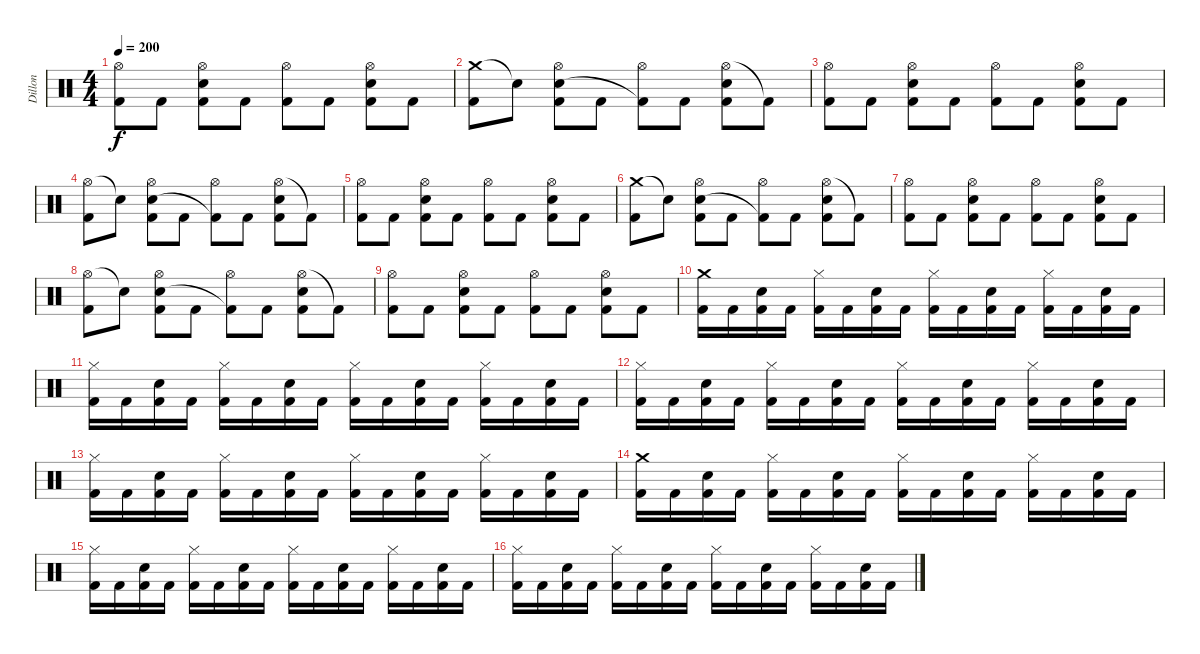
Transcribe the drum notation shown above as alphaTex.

\track ("Dillon" "Dillon") {instrument percussion}
\staff {score}
\articulation defaults
\ts (4 4)
\tempo 200
\clef neutral
\ks c
("Hi-Hat (open)" "Kick (hit) 2").8{dy f} "Kick (hit) 2".8 ("Hi-Hat (open)" "Electric Snare (hit)" "Kick (hit) 2").8 "Kick (hit) 2".8 ("Hi-Hat (open)" "Kick (hit) 2").8 "Kick (hit) 2".8 ("Hi-Hat (open)" "Electric Snare (hit)" "Kick (hit) 2").8 "Kick (hit) 2".8 |
("Crash medium (hit)" "Kick (hit) 2").8 "Snare (hit)"{t}.8 ("Hi-Hat (open)" "Electric Snare (hit)" "Kick (hit) 2").8 "Kick (hit) 2".8 ("Hi-Hat (open)" "Kick (hit) 2"{t}).8 "Kick (hit) 2".8 ("Hi-Hat (open)" "Electric Snare (hit)" "Kick (hit) 2").8 "Kick (hit) 2"{t}.8 |
("Hi-Hat (open)" "Kick (hit) 2").8 "Kick (hit) 2".8 ("Hi-Hat (open)" "Electric Snare (hit)" "Kick (hit) 2").8 "Kick (hit) 2".8 ("Hi-Hat (open)" "Kick (hit) 2").8 "Kick (hit) 2".8 ("Hi-Hat (open)" "Electric Snare (hit)" "Kick (hit) 2").8 "Kick (hit) 2".8 |
("Hi-Hat (open)" "Kick (hit) 2").8 "Snare (hit)"{t}.8 ("Hi-Hat (open)" "Electric Snare (hit)" "Kick (hit) 2").8 "Kick (hit) 2".8 ("Hi-Hat (open)" "Kick (hit) 2"{t}).8 "Kick (hit) 2".8 ("Hi-Hat (open)" "Electric Snare (hit)" "Kick (hit) 2").8 "Kick (hit) 2"{t}.8 |
("Hi-Hat (open)" "Kick (hit) 2").8 "Kick (hit) 2".8 ("Hi-Hat (open)" "Electric Snare (hit)" "Kick (hit) 2").8 "Kick (hit) 2".8 ("Hi-Hat (open)" "Kick (hit) 2").8 "Kick (hit) 2".8 ("Hi-Hat (open)" "Electric Snare (hit)" "Kick (hit) 2").8 "Kick (hit) 2".8 |
("Crash medium (hit)" "Kick (hit) 2").8 "Snare (hit)"{t}.8 ("Hi-Hat (open)" "Electric Snare (hit)" "Kick (hit) 2").8 "Kick (hit) 2".8 ("Hi-Hat (open)" "Kick (hit) 2"{t}).8 "Kick (hit) 2".8 ("Hi-Hat (open)" "Electric Snare (hit)" "Kick (hit) 2").8 "Kick (hit) 2"{t}.8 |
("Hi-Hat (open)" "Kick (hit) 2").8 "Kick (hit) 2".8 ("Hi-Hat (open)" "Electric Snare (hit)" "Kick (hit) 2").8 "Kick (hit) 2".8 ("Hi-Hat (open)" "Kick (hit) 2").8 "Kick (hit) 2".8 ("Hi-Hat (open)" "Electric Snare (hit)" "Kick (hit) 2").8 "Kick (hit) 2".8 |
("Hi-Hat (open)" "Kick (hit) 2").8 "Snare (hit)"{t}.8 ("Hi-Hat (open)" "Electric Snare (hit)" "Kick (hit) 2").8 "Kick (hit) 2".8 ("Hi-Hat (open)" "Kick (hit) 2"{t}).8 "Kick (hit) 2".8 ("Hi-Hat (open)" "Electric Snare (hit)" "Kick (hit) 2").8 "Kick (hit) 2"{t}.8 |
("Hi-Hat (open)" "Kick (hit) 2").8 "Kick (hit) 2".8 ("Hi-Hat (open)" "Electric Snare (hit)" "Kick (hit) 2").8 "Kick (hit) 2".8 ("Hi-Hat (open)" "Kick (hit) 2").8 "Kick (hit) 2".8 ("Hi-Hat (open)" "Electric Snare (hit)" "Kick (hit) 2").8 "Kick (hit) 2".8 |
("Crash medium (hit)" "Kick (hit) 2").16 "Kick (hit) 2".16 ("Electric Snare (hit)" "Kick (hit) 2").16 "Kick (hit) 2".16 ("Hi-Hat (closed)" "Kick (hit) 2").16 "Kick (hit) 2".16 ("Electric Snare (hit)" "Kick (hit) 2").16 "Kick (hit) 2".16 ("Hi-Hat (closed)" "Kick (hit) 2").16 "Kick (hit) 2".16 ("Electric Snare (hit)" "Kick (hit) 2").16 "Kick (hit) 2".16 ("Hi-Hat (closed)" "Kick (hit) 2").16 "Kick (hit) 2".16 ("Electric Snare (hit)" "Kick (hit) 2").16 "Kick (hit) 2".16 |
("Hi-Hat (closed)" "Kick (hit) 2").16 "Kick (hit) 2".16 ("Electric Snare (hit)" "Kick (hit) 2").16 "Kick (hit) 2".16 ("Hi-Hat (closed)" "Kick (hit) 2").16 "Kick (hit) 2".16 ("Electric Snare (hit)" "Kick (hit) 2").16 "Kick (hit) 2".16 ("Hi-Hat (closed)" "Kick (hit) 2").16 "Kick (hit) 2".16 ("Electric Snare (hit)" "Kick (hit) 2").16 "Kick (hit) 2".16 ("Hi-Hat (closed)" "Kick (hit) 2").16 "Kick (hit) 2".16 ("Electric Snare (hit)" "Kick (hit) 2").16 "Kick (hit) 2".16 |
("Hi-Hat (closed)" "Kick (hit) 2").16 "Kick (hit) 2".16 ("Electric Snare (hit)" "Kick (hit) 2").16 "Kick (hit) 2".16 ("Hi-Hat (closed)" "Kick (hit) 2").16 "Kick (hit) 2".16 ("Electric Snare (hit)" "Kick (hit) 2").16 "Kick (hit) 2".16 ("Hi-Hat (closed)" "Kick (hit) 2").16 "Kick (hit) 2".16 ("Electric Snare (hit)" "Kick (hit) 2").16 "Kick (hit) 2".16 ("Hi-Hat (closed)" "Kick (hit) 2").16 "Kick (hit) 2".16 ("Electric Snare (hit)" "Kick (hit) 2").16 "Kick (hit) 2".16 |
("Hi-Hat (closed)" "Kick (hit) 2").16 "Kick (hit) 2".16 ("Electric Snare (hit)" "Kick (hit) 2").16 "Kick (hit) 2".16 ("Hi-Hat (closed)" "Kick (hit) 2").16 "Kick (hit) 2".16 ("Electric Snare (hit)" "Kick (hit) 2").16 "Kick (hit) 2".16 ("Hi-Hat (closed)" "Kick (hit) 2").16 "Kick (hit) 2".16 ("Electric Snare (hit)" "Kick (hit) 2").16 "Kick (hit) 2".16 ("Hi-Hat (closed)" "Kick (hit) 2").16 "Kick (hit) 2".16 ("Electric Snare (hit)" "Kick (hit) 2").16 "Kick (hit) 2".16 |
("Crash medium (hit)" "Kick (hit) 2").16 "Kick (hit) 2".16 ("Electric Snare (hit)" "Kick (hit) 2").16 "Kick (hit) 2".16 ("Hi-Hat (closed)" "Kick (hit) 2").16 "Kick (hit) 2".16 ("Electric Snare (hit)" "Kick (hit) 2").16 "Kick (hit) 2".16 ("Hi-Hat (closed)" "Kick (hit) 2").16 "Kick (hit) 2".16 ("Electric Snare (hit)" "Kick (hit) 2").16 "Kick (hit) 2".16 ("Hi-Hat (closed)" "Kick (hit) 2").16 "Kick (hit) 2".16 ("Electric Snare (hit)" "Kick (hit) 2").16 "Kick (hit) 2".16 |
("Hi-Hat (closed)" "Kick (hit) 2").16 "Kick (hit) 2".16 ("Electric Snare (hit)" "Kick (hit) 2").16 "Kick (hit) 2".16 ("Hi-Hat (closed)" "Kick (hit) 2").16 "Kick (hit) 2".16 ("Electric Snare (hit)" "Kick (hit) 2").16 "Kick (hit) 2".16 ("Hi-Hat (closed)" "Kick (hit) 2").16 "Kick (hit) 2".16 ("Electric Snare (hit)" "Kick (hit) 2").16 "Kick (hit) 2".16 ("Hi-Hat (closed)" "Kick (hit) 2").16 "Kick (hit) 2".16 ("Electric Snare (hit)" "Kick (hit) 2").16 "Kick (hit) 2".16 |
("Hi-Hat (closed)" "Kick (hit) 2").16 "Kick (hit) 2".16 ("Electric Snare (hit)" "Kick (hit) 2").16 "Kick (hit) 2".16 ("Hi-Hat (closed)" "Kick (hit) 2").16 "Kick (hit) 2".16 ("Electric Snare (hit)" "Kick (hit) 2").16 "Kick (hit) 2".16 ("Hi-Hat (closed)" "Kick (hit) 2").16 "Kick (hit) 2".16 ("Electric Snare (hit)" "Kick (hit) 2").16 "Kick (hit) 2".16 ("Hi-Hat (closed)" "Kick (hit) 2").16 "Kick (hit) 2".16 ("Electric Snare (hit)" "Kick (hit) 2").16 "Kick (hit) 2".16
